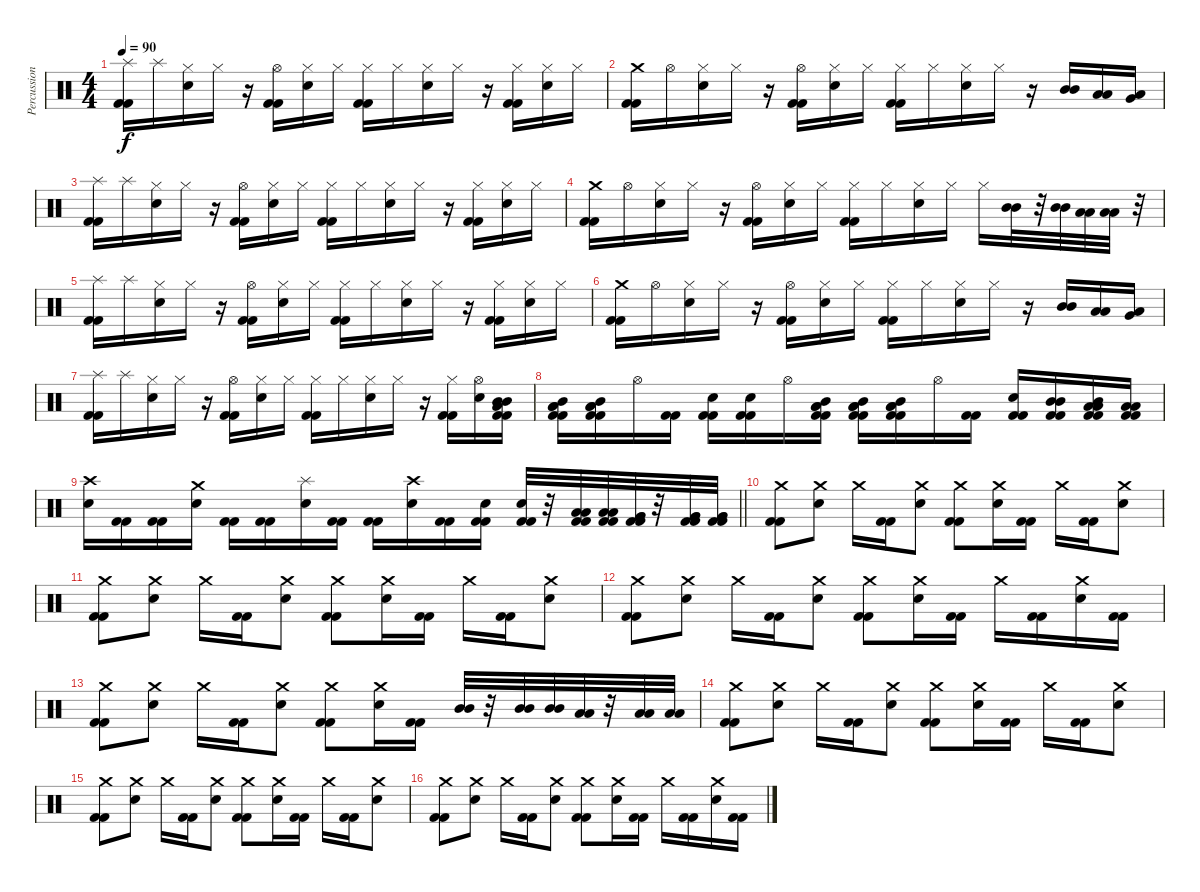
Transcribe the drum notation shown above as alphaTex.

\track ("Percussion" "Percussion") {instrument percussion}
\staff {score}
\articulation defaults
\ts (4 4)
\tempo 90
\clef neutral
\ks c
("Splash (hit)" "Kick (hit) 2" "Kick (hit) 2").16{dy f} "Splash (hit)".16 ("Hi-Hat (closed)" "Electric Snare (hit)").16 "Hi-Hat (closed)".16 r.16 ("Hi-Hat (open)" "Kick (hit) 2" "Kick (hit) 2").16 ("Hi-Hat (closed)" "Electric Snare (hit)").16 "Hi-Hat (closed)".16 ("Hi-Hat (closed)" "Kick (hit) 2" "Kick (hit) 2").16 "Hi-Hat (closed)".16 ("Hi-Hat (closed)" "Electric Snare (hit)").16 "Hi-Hat (closed)".16 r.16 ("Hi-Hat (closed)" "Kick (hit) 2" "Kick (hit) 2").16 ("Hi-Hat (closed)" "Electric Snare (hit)").16 "Hi-Hat (closed)".16 |
("Crash medium (hit)" "Kick (hit) 2" "Kick (hit) 2").16 "Hi-Hat (open)".16 ("Hi-Hat (closed)" "Electric Snare (hit)").16 "Hi-Hat (closed)".16 r.16 ("Hi-Hat (open)" "Kick (hit) 2" "Kick (hit) 2").16 ("Hi-Hat (closed)" "Electric Snare (hit)").16 "Hi-Hat (closed)".16 ("Hi-Hat (closed)" "Kick (hit) 2" "Kick (hit) 2").16 "Hi-Hat (closed)".16 ("Hi-Hat (closed)" "Electric Snare (hit)").16 "Hi-Hat (closed)".16 r.16 ("Mid Tom (hit)" "Mid Tom (hit)").16 ("Low Tom (hit)" "Low Tom (hit)").16 ("Low Tom (hit)" "Very Low Tom (hit)").16 |
("Splash (hit)" "Kick (hit) 2" "Kick (hit) 2").16 "Splash (hit)".16 ("Hi-Hat (closed)" "Electric Snare (hit)").16 "Hi-Hat (closed)".16 r.16 ("Hi-Hat (open)" "Kick (hit) 2" "Kick (hit) 2").16 ("Hi-Hat (closed)" "Electric Snare (hit)").16 "Hi-Hat (closed)".16 ("Hi-Hat (closed)" "Kick (hit) 2" "Kick (hit) 2").16 "Hi-Hat (closed)".16 ("Hi-Hat (closed)" "Electric Snare (hit)").16 "Hi-Hat (closed)".16 r.16 ("Hi-Hat (closed)" "Kick (hit) 2" "Kick (hit) 2").16 ("Hi-Hat (closed)" "Electric Snare (hit)").16 "Hi-Hat (closed)".16 |
("Crash medium (hit)" "Kick (hit) 2" "Kick (hit) 2").16 "Hi-Hat (open)".16 ("Hi-Hat (closed)" "Electric Snare (hit)").16 "Hi-Hat (closed)".16 r.16 ("Hi-Hat (open)" "Kick (hit) 2" "Kick (hit) 2").16 ("Hi-Hat (closed)" "Electric Snare (hit)").16 "Hi-Hat (closed)".16 ("Hi-Hat (closed)" "Kick (hit) 2" "Kick (hit) 2").16 "Hi-Hat (closed)".16 ("Hi-Hat (closed)" "Electric Snare (hit)").16 "Hi-Hat (closed)".16 "Hi-Hat (closed)".16 ("Mid Tom (hit)" "Mid Tom (hit)").32 r.32 ("Mid Tom (hit)" "Mid Tom (hit)").32 ("Low Tom (hit)" "Low Tom (hit)").32 ("Low Tom (hit)" "Low Tom (hit)").32 r.32 |
("Splash (hit)" "Kick (hit) 2" "Kick (hit) 2").16 "Splash (hit)".16 ("Hi-Hat (closed)" "Electric Snare (hit)").16 "Hi-Hat (closed)".16 r.16 ("Hi-Hat (open)" "Kick (hit) 2" "Kick (hit) 2").16 ("Hi-Hat (closed)" "Electric Snare (hit)").16 "Hi-Hat (closed)".16 ("Hi-Hat (closed)" "Kick (hit) 2" "Kick (hit) 2").16 "Hi-Hat (closed)".16 ("Hi-Hat (closed)" "Electric Snare (hit)").16 "Hi-Hat (closed)".16 r.16 ("Hi-Hat (closed)" "Kick (hit) 2" "Kick (hit) 2").16 ("Hi-Hat (closed)" "Electric Snare (hit)").16 "Hi-Hat (closed)".16 |
("Crash medium (hit)" "Kick (hit) 2" "Kick (hit) 2").16 "Hi-Hat (open)".16 ("Hi-Hat (closed)" "Electric Snare (hit)").16 "Hi-Hat (closed)".16 r.16 ("Hi-Hat (open)" "Kick (hit) 2" "Kick (hit) 2").16 ("Hi-Hat (closed)" "Electric Snare (hit)").16 "Hi-Hat (closed)".16 ("Hi-Hat (closed)" "Kick (hit) 2" "Kick (hit) 2").16 "Hi-Hat (closed)".16 ("Hi-Hat (closed)" "Electric Snare (hit)").16 "Hi-Hat (closed)".16 r.16 ("Mid Tom (hit)" "Mid Tom (hit)").16 ("Low Tom (hit)" "Low Tom (hit)").16 ("Low Tom (hit)" "Very Low Tom (hit)").16 |
("Splash (hit)" "Kick (hit) 2" "Kick (hit) 2").16 "Splash (hit)".16 ("Hi-Hat (closed)" "Electric Snare (hit)").16 "Hi-Hat (closed)".16 r.16 ("Hi-Hat (open)" "Kick (hit) 2" "Kick (hit) 2").16 ("Hi-Hat (closed)" "Electric Snare (hit)").16 "Hi-Hat (closed)".16 ("Hi-Hat (closed)" "Kick (hit) 2" "Kick (hit) 2").16 "Hi-Hat (closed)".16 ("Hi-Hat (closed)" "Electric Snare (hit)").16 "Hi-Hat (closed)".16 r.16 ("Hi-Hat (closed)" "Kick (hit) 2" "Kick (hit) 2").16 ("Hi-Hat (open)" "Electric Snare (hit)").16 ("Mid Tom (hit)" "Mid Tom (hit)" "Low Tom (hit)" "Kick (hit) 2" "Kick (hit) 2").16 |
("Mid Tom (hit)" "Low Tom (hit)" "Low Tom (hit)" "Kick (hit) 2" "Kick (hit) 2").16 ("Mid Tom (hit)" "Low Tom (hit)" "Low Tom (hit)" "Kick (hit) 2" "Kick (hit) 2").16 "Hi-Hat (open)".16 ("Kick (hit) 2" "Kick (hit) 2").16 ("Electric Snare (hit)" "Kick (hit) 2" "Kick (hit) 2").16 ("Electric Snare (hit)" "Kick (hit) 2" "Kick (hit) 2").16 "Hi-Hat (open)".16 ("Mid Tom (hit)" "Low Tom (hit)" "Low Tom (hit)" "Kick (hit) 2" "Kick (hit) 2").16 ("Mid Tom (hit)" "Low Tom (hit)" "Low Tom (hit)" "Kick (hit) 2" "Kick (hit) 2").16 ("Mid Tom (hit)" "Low Tom (hit)" "Low Tom (hit)" "Kick (hit) 2" "Kick (hit) 2").16 "Hi-Hat (open)".16 ("Kick (hit) 2" "Kick (hit) 2").16 ("Electric Snare (hit)" "Kick (hit) 2" "Kick (hit) 2").16 ("Mid Tom (hit)" "Mid Tom (hit)" "Kick (hit) 2" "Kick (hit) 2").16 ("Mid Tom (hit)" "Low Tom (hit)" "Low Tom (hit)" "Kick (hit) 2" "Kick (hit) 2").16 ("Low Tom (hit)" "Low Tom (hit)" "Kick (hit) 2" "Kick (hit) 2").16 |
\barLineRight lightlight
("Crash high (hit)" "Electric Snare (hit)").16 ("Kick (hit) 2" "Kick (hit) 2").16 ("Kick (hit) 2" "Kick (hit) 2").16 ("Crash medium (hit)" "Electric Snare (hit)").16 ("Kick (hit) 2" "Kick (hit) 2").16 ("Kick (hit) 2" "Kick (hit) 2").16 ("Splash (hit)" "Electric Snare (hit)").16 ("Kick (hit) 2" "Kick (hit) 2").16 ("Kick (hit) 2" "Kick (hit) 2").16 ("Crash high (hit)" "Electric Snare (hit)").16 ("Kick (hit) 2" "Kick (hit) 2").16 ("Electric Snare (hit)" "Kick (hit) 2" "Kick (hit) 2").16 ("Electric Snare (hit)" "Kick (hit) 2" "Kick (hit) 2").32 r.32 ("Low Tom (hit)" "Low Tom (hit)" "Kick (hit) 2" "Kick (hit) 2").32 ("Low Tom (hit)" "Low Tom (hit)" "Kick (hit) 2" "Kick (hit) 2").32 ("Very Low Tom (hit)" "Very Low Tom (hit)" "Kick (hit) 2" "Kick (hit) 2").32 r.32 ("Very Low Tom (hit)" "Very Low Tom (hit)" "Kick (hit) 2" "Kick (hit) 2").32 ("Very Low Tom (hit)" "Very Low Tom (hit)" "Kick (hit) 2" "Kick (hit) 2").32 |
\section ("" "")
("Crash medium (hit)" "Kick (hit) 2" "Kick (hit) 2").8 ("Crash medium (hit)" "Electric Snare (hit)").8 "Crash medium (hit)".16 ("Kick (hit) 2" "Kick (hit) 2").16 ("Crash medium (hit)" "Electric Snare (hit)").8 ("Crash medium (hit)" "Kick (hit) 2" "Kick (hit) 2").8 ("Crash medium (hit)" "Electric Snare (hit)").16 ("Kick (hit) 2" "Kick (hit) 2").16 "Crash medium (hit)".16 ("Kick (hit) 2" "Kick (hit) 2").16 ("Crash medium (hit)" "Electric Snare (hit)").8 |
("Crash medium (hit)" "Kick (hit) 2" "Kick (hit) 2").8 ("Crash medium (hit)" "Electric Snare (hit)").8 "Crash medium (hit)".16 ("Kick (hit) 2" "Kick (hit) 2").16 ("Crash medium (hit)" "Electric Snare (hit)").8 ("Crash medium (hit)" "Kick (hit) 2" "Kick (hit) 2").8 ("Crash medium (hit)" "Electric Snare (hit)").16 ("Kick (hit) 2" "Kick (hit) 2").16 "Crash medium (hit)".16 ("Kick (hit) 2" "Kick (hit) 2").16 ("Crash medium (hit)" "Electric Snare (hit)").8 |
("Crash medium (hit)" "Kick (hit) 2" "Kick (hit) 2").8 ("Crash medium (hit)" "Electric Snare (hit)").8 "Crash medium (hit)".16 ("Kick (hit) 2" "Kick (hit) 2").16 ("Crash medium (hit)" "Electric Snare (hit)").8 ("Crash medium (hit)" "Kick (hit) 2" "Kick (hit) 2").8 ("Crash medium (hit)" "Electric Snare (hit)").16 ("Kick (hit) 2" "Kick (hit) 2").16 "Crash medium (hit)".16 ("Kick (hit) 2" "Kick (hit) 2").16 ("Crash medium (hit)" "Electric Snare (hit)").16 ("Kick (hit) 2" "Kick (hit) 2").16 |
("Crash medium (hit)" "Kick (hit) 2" "Kick (hit) 2").8 ("Crash medium (hit)" "Electric Snare (hit)").8 "Crash medium (hit)".16 ("Kick (hit) 2" "Kick (hit) 2").16 ("Crash medium (hit)" "Electric Snare (hit)").8 ("Crash medium (hit)" "Kick (hit) 2" "Kick (hit) 2").8 ("Crash medium (hit)" "Electric Snare (hit)").16 ("Kick (hit) 2" "Kick (hit) 2").16 ("Mid Tom (hit)" "Mid Tom (hit)").32 r.32 ("Mid Tom (hit)" "Mid Tom (hit)").32 ("Mid Tom (hit)" "Mid Tom (hit)").32 ("Low Tom (hit)" "Low Tom (hit)").32 r.32 ("Low Tom (hit)" "Low Tom (hit)").32 ("Low Tom (hit)" "Low Tom (hit)").32 |
("Crash medium (hit)" "Kick (hit) 2" "Kick (hit) 2").8 ("Crash medium (hit)" "Electric Snare (hit)").8 "Crash medium (hit)".16 ("Kick (hit) 2" "Kick (hit) 2").16 ("Crash medium (hit)" "Electric Snare (hit)").8 ("Crash medium (hit)" "Kick (hit) 2" "Kick (hit) 2").8 ("Crash medium (hit)" "Electric Snare (hit)").16 ("Kick (hit) 2" "Kick (hit) 2").16 "Crash medium (hit)".16 ("Kick (hit) 2" "Kick (hit) 2").16 ("Crash medium (hit)" "Electric Snare (hit)").8 |
("Crash medium (hit)" "Kick (hit) 2" "Kick (hit) 2").8 ("Crash medium (hit)" "Electric Snare (hit)").8 "Crash medium (hit)".16 ("Kick (hit) 2" "Kick (hit) 2").16 ("Crash medium (hit)" "Electric Snare (hit)").8 ("Crash medium (hit)" "Kick (hit) 2" "Kick (hit) 2").8 ("Crash medium (hit)" "Electric Snare (hit)").16 ("Kick (hit) 2" "Kick (hit) 2").16 "Crash medium (hit)".16 ("Kick (hit) 2" "Kick (hit) 2").16 ("Crash medium (hit)" "Electric Snare (hit)").8 |
("Crash medium (hit)" "Kick (hit) 2" "Kick (hit) 2").8 ("Crash medium (hit)" "Electric Snare (hit)").8 "Crash medium (hit)".16 ("Kick (hit) 2" "Kick (hit) 2").16 ("Crash medium (hit)" "Electric Snare (hit)").8 ("Crash medium (hit)" "Kick (hit) 2" "Kick (hit) 2").8 ("Crash medium (hit)" "Electric Snare (hit)").16 ("Kick (hit) 2" "Kick (hit) 2").16 "Crash medium (hit)".16 ("Kick (hit) 2" "Kick (hit) 2").16 ("Crash medium (hit)" "Electric Snare (hit)").16 ("Kick (hit) 2" "Kick (hit) 2").16
